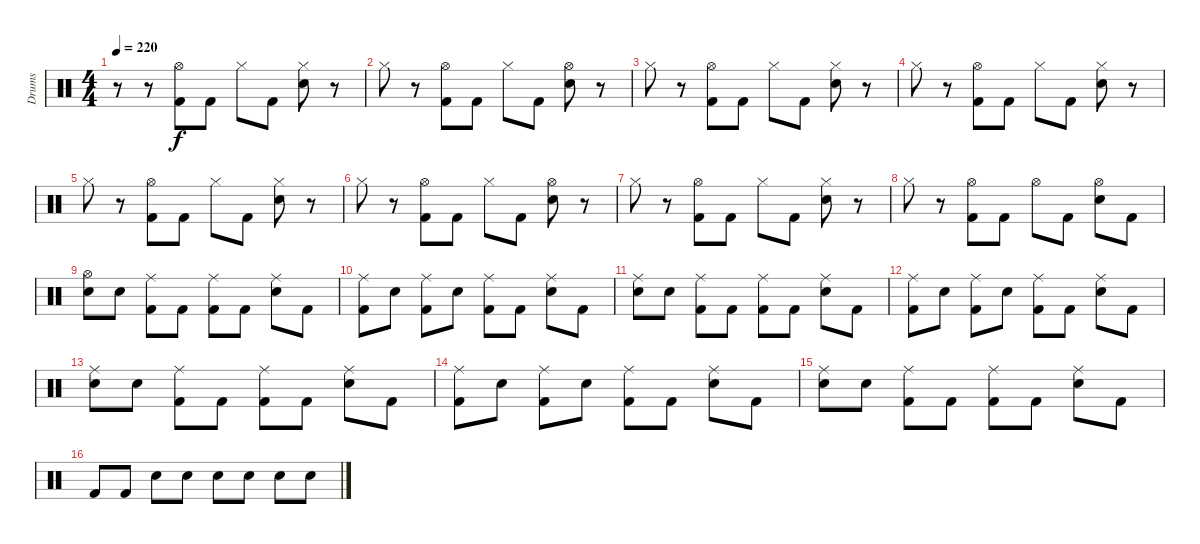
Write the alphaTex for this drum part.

\track ("Drums" "Drums") {instrument percussion}
\staff {score}
\articulation defaults
\ts (4 4)
\tempo 220
\clef neutral
\ks c
r.8{dy f} r.8 ("Hi-Hat (open)" "Kick (hit) 2").8 "Kick (hit) 2".8 "Hi-Hat (closed)".8 "Kick (hit) 2".8 ("Hi-Hat (closed)" "Electric Snare (hit)").8 r.8 |
"Hi-Hat (closed)".8 r.8 ("Hi-Hat (open)" "Kick (hit) 2").8 "Kick (hit) 2".8 "Hi-Hat (closed)".8 "Kick (hit) 2".8 ("Hi-Hat (open)" "Electric Snare (hit)").8 r.8 |
"Hi-Hat (closed)".8 r.8 ("Hi-Hat (open)" "Kick (hit) 2").8 "Kick (hit) 2".8 "Hi-Hat (closed)".8 "Kick (hit) 2".8 ("Hi-Hat (closed)" "Electric Snare (hit)").8 r.8 |
"Hi-Hat (closed)".8 r.8 ("Hi-Hat (open)" "Kick (hit) 2").8 "Kick (hit) 2".8 "Hi-Hat (closed)".8 "Kick (hit) 2".8 ("Hi-Hat (closed)" "Electric Snare (hit)").8 r.8 |
"Hi-Hat (closed)".8 r.8 ("Hi-Hat (open)" "Kick (hit) 2").8 "Kick (hit) 2".8 "Hi-Hat (closed)".8 "Kick (hit) 2".8 ("Hi-Hat (closed)" "Electric Snare (hit)").8 r.8 |
"Hi-Hat (closed)".8 r.8 ("Hi-Hat (open)" "Kick (hit) 2").8 "Kick (hit) 2".8 "Hi-Hat (closed)".8 "Kick (hit) 2".8 ("Hi-Hat (open)" "Electric Snare (hit)").8 r.8 |
"Hi-Hat (closed)".8 r.8 ("Hi-Hat (open)" "Kick (hit) 2").8 "Kick (hit) 2".8 "Hi-Hat (closed)".8 "Kick (hit) 2".8 ("Hi-Hat (closed)" "Electric Snare (hit)").8 r.8 |
"Hi-Hat (closed)".8 r.8 ("Hi-Hat (open)" "Kick (hit) 2").8 "Kick (hit) 2".8 "Hi-Hat (open)".8 "Kick (hit) 2".8 ("Hi-Hat (open)" "Electric Snare (hit)").8 "Kick (hit) 2".8 |
("Hi-Hat (open)" "Electric Snare (hit)").8 "Electric Snare (hit)".8 ("Ride (middle)" "Kick (hit) 2").8 "Kick (hit) 2".8 ("Ride (middle)" "Kick (hit) 2").8 "Kick (hit) 2".8 ("Ride (middle)" "Electric Snare (hit)").8 "Kick (hit) 2".8 |
("Ride (middle)" "Kick (hit) 2").8 "Electric Snare (hit)".8 ("Ride (middle)" "Kick (hit) 2").8 "Electric Snare (hit)".8 ("Ride (middle)" "Kick (hit) 2").8 "Kick (hit) 2".8 ("Ride (middle)" "Electric Snare (hit)").8 "Kick (hit) 2".8 |
("Ride (middle)" "Electric Snare (hit)").8 "Electric Snare (hit)".8 ("Ride (middle)" "Kick (hit) 2").8 "Kick (hit) 2".8 ("Ride (middle)" "Kick (hit) 2").8 "Kick (hit) 2".8 ("Ride (middle)" "Electric Snare (hit)").8 "Kick (hit) 2".8 |
("Ride (middle)" "Kick (hit) 2").8 "Electric Snare (hit)".8 ("Ride (middle)" "Kick (hit) 2").8 "Electric Snare (hit)".8 ("Ride (middle)" "Kick (hit) 2").8 "Kick (hit) 2".8 ("Ride (middle)" "Electric Snare (hit)").8 "Kick (hit) 2".8 |
("Ride (middle)" "Electric Snare (hit)").8 "Electric Snare (hit)".8 ("Ride (middle)" "Kick (hit) 2").8 "Kick (hit) 2".8 ("Ride (middle)" "Kick (hit) 2").8 "Kick (hit) 2".8 ("Ride (middle)" "Electric Snare (hit)").8 "Kick (hit) 2".8 |
("Ride (middle)" "Kick (hit) 2").8 "Electric Snare (hit)".8 ("Ride (middle)" "Kick (hit) 2").8 "Electric Snare (hit)".8 ("Ride (middle)" "Kick (hit) 2").8 "Kick (hit) 2".8 ("Ride (middle)" "Electric Snare (hit)").8 "Kick (hit) 2".8 |
("Ride (middle)" "Electric Snare (hit)").8 "Electric Snare (hit)".8 ("Ride (middle)" "Kick (hit) 2").8 "Kick (hit) 2".8 ("Ride (middle)" "Kick (hit) 2").8 "Kick (hit) 2".8 ("Ride (middle)" "Electric Snare (hit)").8 "Kick (hit) 2".8 |
"Kick (hit) 2".8 "Kick (hit) 2".8 "Electric Snare (hit)".8 "Electric Snare (hit)".8 "Electric Snare (hit)".8 "Electric Snare (hit)".8 "Electric Snare (hit)".8 "Electric Snare (hit)".8
